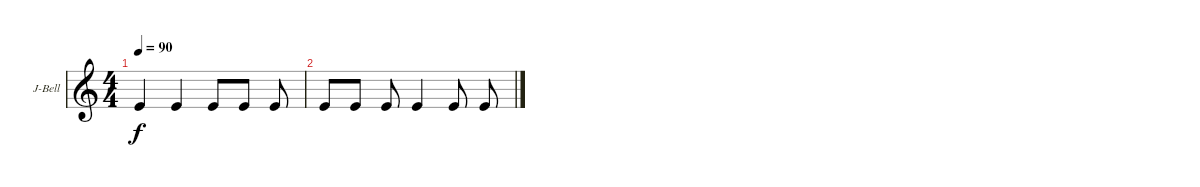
\defaultSystemsLayout 4
\bracketExtendMode groupsimilarinstruments
\firstSystemTrackNameOrientation horizontal
\otherSystemsTrackNameOrientation horizontal
\track ("Jingle Bell" "J-Bell") {instrument percussion}
\staff {score}
\articulation defaults
\ts (4 4)
\tempo 90
\clef g2
\ks c "Kick (hit)".4{dy f} "Kick (hit)".4 "Kick (hit)".8 "Kick (hit)".8 "Kick (hit)".8
|
"Kick (hit)".8 "Kick (hit)".8 "Kick (hit)".8 "Kick (hit)".4 "Kick (hit)".8 "Kick (hit)".8
